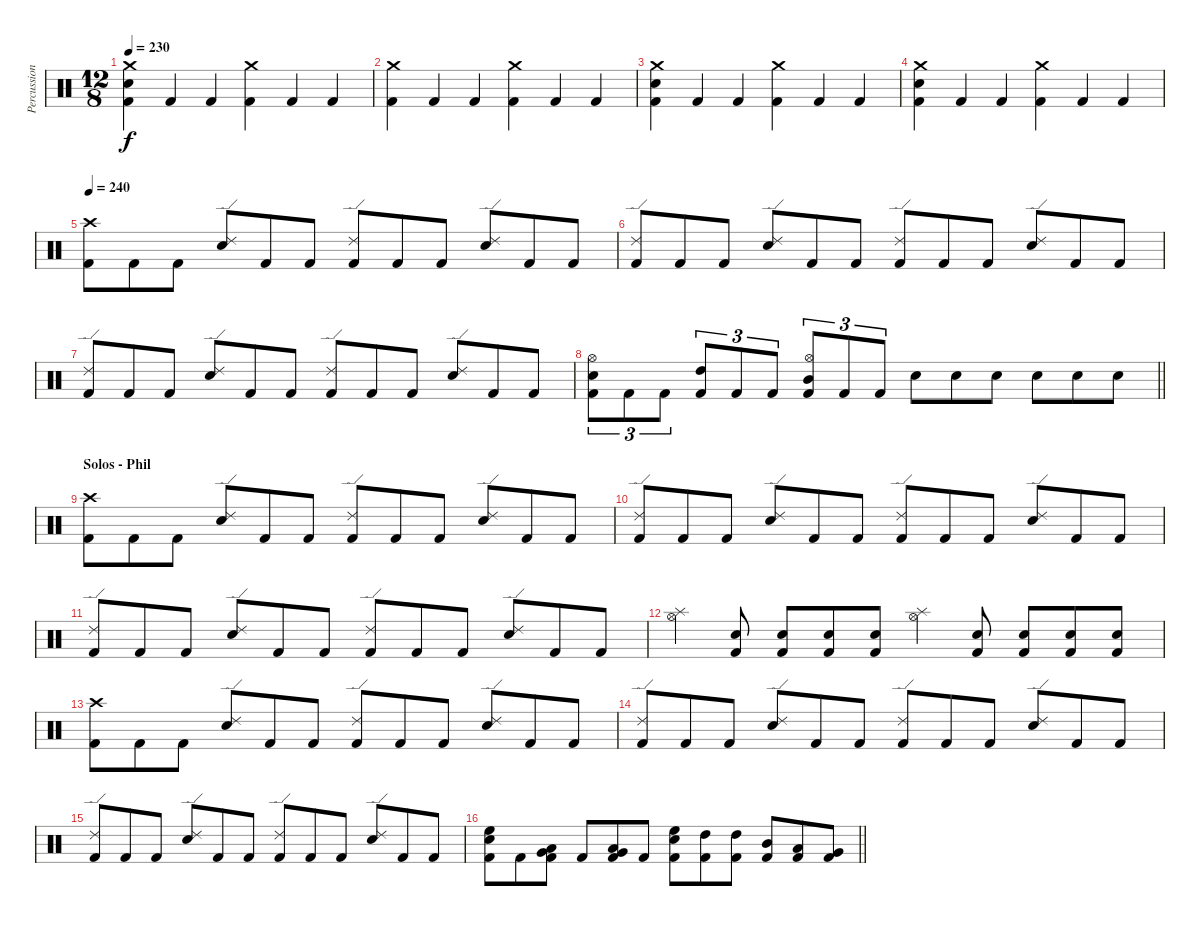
\track ("Percussions" "Percussion") {instrument percussion}
\staff {score}
\articulation defaults
\ts (12 8)
\tempo 230
\clef neutral
\ks c
("Crash medium (hit)" "Electric Snare (hit)" "Kick (hit) 2").4{dy f} "Kick (hit) 2".4 "Kick (hit) 2".4 ("Crash medium (hit)" "Kick (hit) 2").4 "Kick (hit) 2".4 "Kick (hit) 2".4 |
("Crash medium (hit)" "Kick (hit) 2").4 "Kick (hit) 2".4 "Kick (hit) 2".4 ("Crash medium (hit)" "Kick (hit) 2").4 "Kick (hit) 2".4 "Kick (hit) 2".4 |
("Crash medium (hit)" "Electric Snare (hit)" "Kick (hit) 2").4 "Kick (hit) 2".4 "Kick (hit) 2".4 ("Crash medium (hit)" "Kick (hit) 2").4 "Kick (hit) 2".4 "Kick (hit) 2".4 |
("Crash medium (hit)" "Electric Snare (hit)" "Kick (hit) 2").4 "Kick (hit) 2".4 "Kick (hit) 2".4 ("Crash medium (hit)" "Kick (hit) 2").4 "Kick (hit) 2".4 "Kick (hit) 2".4 |
\tempo 240
("Crash high (hit)" "Kick (hit) 2").8 "Kick (hit) 2".8 "Kick (hit) 2".8 ("Ride (edge) 2" "Electric Snare (hit)").8 "Kick (hit) 2".8 "Kick (hit) 2".8 ("Ride (edge) 2" "Kick (hit) 2").8 "Kick (hit) 2".8 "Kick (hit) 2".8 ("Ride (edge) 2" "Electric Snare (hit)").8 "Kick (hit) 2".8 "Kick (hit) 2".8 |
("Ride (edge) 2" "Kick (hit) 2").8 "Kick (hit) 2".8 "Kick (hit) 2".8 ("Ride (edge) 2" "Electric Snare (hit)").8 "Kick (hit) 2".8 "Kick (hit) 2".8 ("Ride (edge) 2" "Kick (hit) 2").8 "Kick (hit) 2".8 "Kick (hit) 2".8 ("Ride (edge) 2" "Electric Snare (hit)").8 "Kick (hit) 2".8 "Kick (hit) 2".8 |
("Ride (edge) 2" "Kick (hit) 2").8 "Kick (hit) 2".8 "Kick (hit) 2".8 ("Ride (edge) 2" "Electric Snare (hit)").8 "Kick (hit) 2".8 "Kick (hit) 2".8 ("Ride (edge) 2" "Kick (hit) 2").8 "Kick (hit) 2".8 "Kick (hit) 2".8 ("Ride (edge) 2" "Electric Snare (hit)").8 "Kick (hit) 2".8 "Kick (hit) 2".8 |
\barLineRight lightlight
("Hi-Hat (open)" "Electric Snare (hit)" "Kick (hit) 2").8{tu (3 2)} "Kick (hit) 2".8{tu (3 2)} "Kick (hit) 2".8{tu (3 2)} ("High Tom (hit)" "Kick (hit) 2").8{tu (3 2)} "Kick (hit) 2".8{tu (3 2)} "Kick (hit) 2".8{tu (3 2)} ("Hi-Hat (open)" "Mid Tom (hit)" "Kick (hit) 2").8{tu (3 2)} "Kick (hit) 2".8{tu (3 2)} "Kick (hit) 2".8{tu (3 2)} "Electric Snare (hit)".8 "Electric Snare (hit)".8 "Electric Snare (hit)".8 "Electric Snare (hit)".8 "Electric Snare (hit)".8 "Electric Snare (hit)".8 |
\section ("" "Solos - Phil")
("Crash high (hit)" "Kick (hit) 2").8 "Kick (hit) 2".8 "Kick (hit) 2".8 ("Ride (edge) 2" "Electric Snare (hit)").8 "Kick (hit) 2".8 "Kick (hit) 2".8 ("Ride (edge) 2" "Kick (hit) 2").8 "Kick (hit) 2".8 "Kick (hit) 2".8 ("Ride (edge) 2" "Electric Snare (hit)").8 "Kick (hit) 2".8 "Kick (hit) 2".8 |
("Ride (edge) 2" "Kick (hit) 2").8 "Kick (hit) 2".8 "Kick (hit) 2".8 ("Ride (edge) 2" "Electric Snare (hit)").8 "Kick (hit) 2".8 "Kick (hit) 2".8 ("Ride (edge) 2" "Kick (hit) 2").8 "Kick (hit) 2".8 "Kick (hit) 2".8 ("Ride (edge) 2" "Electric Snare (hit)").8 "Kick (hit) 2".8 "Kick (hit) 2".8 |
("Ride (edge) 2" "Kick (hit) 2").8 "Kick (hit) 2".8 "Kick (hit) 2".8 ("Ride (edge) 2" "Electric Snare (hit)").8 "Kick (hit) 2".8 "Kick (hit) 2".8 ("Ride (edge) 2" "Kick (hit) 2").8 "Kick (hit) 2".8 "Kick (hit) 2".8 ("Ride (edge) 2" "Electric Snare (hit)").8 "Kick (hit) 2".8 "Kick (hit) 2".8 |
("Hi-Hat (open)" "Splash (hit)").4 ("Electric Snare (hit)" "Kick (hit) 2").8 ("Electric Snare (hit)" "Kick (hit) 2").8 ("Electric Snare (hit)" "Kick (hit) 2").8 ("Electric Snare (hit)" "Kick (hit) 2").8 ("Hi-Hat (open)" "Splash (hit)").4 ("Electric Snare (hit)" "Kick (hit) 2").8 ("Electric Snare (hit)" "Kick (hit) 2").8 ("Electric Snare (hit)" "Kick (hit) 2").8 ("Electric Snare (hit)" "Kick (hit) 2").8 |
("Crash high (hit)" "Kick (hit) 2").8 "Kick (hit) 2".8 "Kick (hit) 2".8 ("Ride (edge) 2" "Electric Snare (hit)").8 "Kick (hit) 2".8 "Kick (hit) 2".8 ("Ride (edge) 2" "Kick (hit) 2").8 "Kick (hit) 2".8 "Kick (hit) 2".8 ("Ride (edge) 2" "Electric Snare (hit)").8 "Kick (hit) 2".8 "Kick (hit) 2".8 |
("Ride (edge) 2" "Kick (hit) 2").8 "Kick (hit) 2".8 "Kick (hit) 2".8 ("Ride (edge) 2" "Electric Snare (hit)").8 "Kick (hit) 2".8 "Kick (hit) 2".8 ("Ride (edge) 2" "Kick (hit) 2").8 "Kick (hit) 2".8 "Kick (hit) 2".8 ("Ride (edge) 2" "Electric Snare (hit)").8 "Kick (hit) 2".8 "Kick (hit) 2".8 |
("Ride (edge) 2" "Kick (hit) 2").8 "Kick (hit) 2".8 "Kick (hit) 2".8 ("Ride (edge) 2" "Electric Snare (hit)").8 "Kick (hit) 2".8 "Kick (hit) 2".8 ("Ride (edge) 2" "Kick (hit) 2").8 "Kick (hit) 2".8 "Kick (hit) 2".8 ("Ride (edge) 2" "Electric Snare (hit)").8 "Kick (hit) 2".8 "Kick (hit) 2".8 |
\barLineRight lightlight
("High Floor Tom (hit)" "Electric Snare (hit)" "Kick (hit) 2").8 "Kick (hit) 2".8 ("Low Tom (hit)" "Very Low Tom (hit)" "Kick (hit) 2").8 "Kick (hit) 2".8 ("Very Low Tom (hit)" "Low Floor Tom (hit)" "Kick (hit) 2").8 "Kick (hit) 2".8 ("High Floor Tom (hit)" "Electric Snare (hit)" "Kick (hit) 2").8 ("High Tom (hit)" "Kick (hit) 2").8 ("High Tom (hit)" "Kick (hit) 2").8 ("Mid Tom (hit)" "Kick (hit) 2").8 ("Low Tom (hit)" "Kick (hit) 2").8 ("Very Low Tom (hit)" "Kick (hit) 2").8
